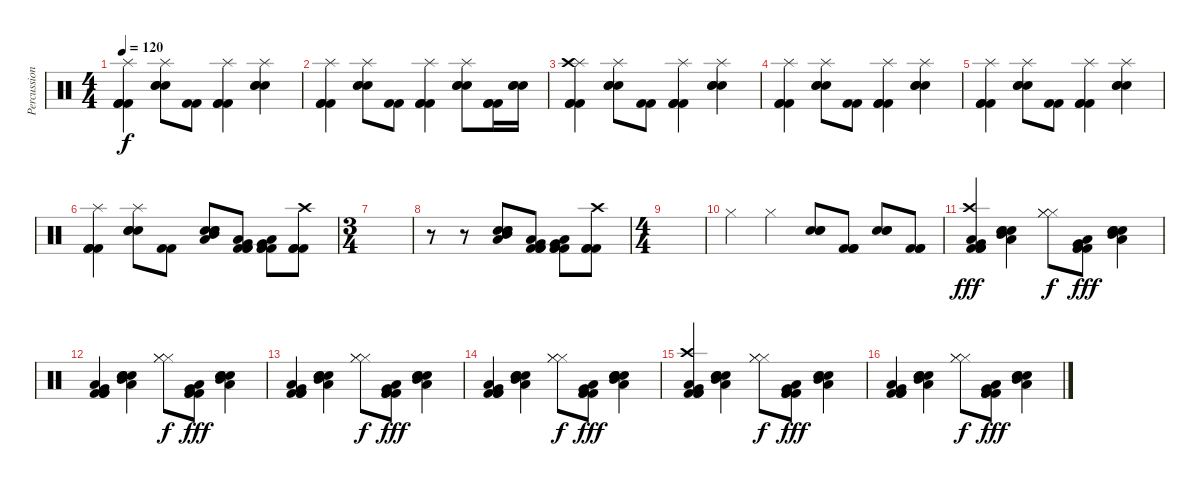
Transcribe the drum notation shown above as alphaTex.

\track ("Percussion" "Percussion") {instrument percussion}
\staff {score}
\articulation defaults
\ts (4 4)
\tempo 120
\clef neutral
\ks c
("Kick (hit) 2" "Kick (hit) 2" "Kick (hit) 2" "Splash (hit)").4{dy f} ("Electric Snare (hit)" "Electric Snare (hit)" "Electric Snare (hit)" "Splash (hit)").8 ("Kick (hit) 2" "Kick (hit) 2").8 ("Kick (hit) 2" "Kick (hit) 2" "Kick (hit) 2" "Splash (hit)").4 ("Electric Snare (hit)" "Electric Snare (hit)" "Electric Snare (hit)" "Splash (hit)").4 |
("Kick (hit) 2" "Kick (hit) 2" "Kick (hit) 2" "Splash (hit)").4 ("Electric Snare (hit)" "Electric Snare (hit)" "Electric Snare (hit)" "Splash (hit)").8 ("Kick (hit) 2" "Kick (hit) 2").8 ("Kick (hit) 2" "Kick (hit) 2" "Kick (hit) 2" "Splash (hit)").4 ("Electric Snare (hit)" "Electric Snare (hit)" "Electric Snare (hit)" "Splash (hit)").8 ("Kick (hit) 2" "Kick (hit) 2" "Kick (hit) 2").16 ("Electric Snare (hit)" "Electric Snare (hit)" "Electric Snare (hit)").16 |
("Kick (hit) 2" "Kick (hit) 2" "Kick (hit) 2" "Splash (hit)" "Crash high (hit)").4 ("Electric Snare (hit)" "Electric Snare (hit)" "Electric Snare (hit)" "Splash (hit)").8 ("Kick (hit) 2" "Kick (hit) 2").8 ("Kick (hit) 2" "Kick (hit) 2" "Kick (hit) 2" "Splash (hit)").4 ("Electric Snare (hit)" "Electric Snare (hit)" "Electric Snare (hit)" "Splash (hit)").4 |
("Kick (hit) 2" "Kick (hit) 2" "Kick (hit) 2" "Splash (hit)").4 ("Electric Snare (hit)" "Electric Snare (hit)" "Electric Snare (hit)" "Splash (hit)").8 ("Kick (hit) 2" "Kick (hit) 2").8 ("Kick (hit) 2" "Kick (hit) 2" "Kick (hit) 2" "Splash (hit)").4 ("Electric Snare (hit)" "Electric Snare (hit)" "Electric Snare (hit)" "Splash (hit)").4 |
("Kick (hit) 2" "Kick (hit) 2" "Kick (hit) 2" "Splash (hit)").4 ("Electric Snare (hit)" "Electric Snare (hit)" "Electric Snare (hit)" "Splash (hit)").8 ("Kick (hit) 2" "Kick (hit) 2").8 ("Kick (hit) 2" "Kick (hit) 2" "Kick (hit) 2" "Splash (hit)").4 ("Electric Snare (hit)" "Electric Snare (hit)" "Electric Snare (hit)" "Splash (hit)").4 |
("Kick (hit) 2" "Kick (hit) 2" "Kick (hit) 2" "Splash (hit)").4 ("Electric Snare (hit)" "Electric Snare (hit)" "Electric Snare (hit)" "Splash (hit)").8 ("Kick (hit) 2" "Kick (hit) 2").8 ("Electric Snare (hit)" "Electric Snare (hit)" "Electric Snare (hit)" "Mid Tom (hit)" "Low Tom (hit)").8 ("Kick (hit) 2" "Kick (hit) 2" "Kick (hit) 2" "Low Tom (hit)" "Very Low Tom (hit)").8 ("Kick (hit) 2" "Kick (hit) 2" "Kick (hit) 2" "Very Low Tom (hit)" "Low Floor Tom (hit)").8 ("Kick (hit) 2" "Kick (hit) 2" "Kick (hit) 2" "Crash high (hit)").8 |
\ts (3 4)
|
r.8 r.8 ("Electric Snare (hit)" "Electric Snare (hit)" "Electric Snare (hit)" "Mid Tom (hit)" "Low Tom (hit)").8 ("Kick (hit) 2" "Kick (hit) 2" "Kick (hit) 2" "Low Tom (hit)" "Very Low Tom (hit)").8 ("Kick (hit) 2" "Kick (hit) 2" "Kick (hit) 2" "Very Low Tom (hit)" "Low Floor Tom (hit)").8 ("Kick (hit) 2" "Kick (hit) 2" "Kick (hit) 2" "Crash high (hit)").8 |
\ts (4 4)
|
"Hi-Hat (closed)".4 "Hi-Hat (closed)".4 ("Electric Snare (hit)" "Electric Snare (hit)" "Electric Snare (hit)").8 ("Kick (hit) 2" "Kick (hit) 2" "Kick (hit) 2").8 ("Electric Snare (hit)" "Electric Snare (hit)" "Electric Snare (hit)").8 ("Kick (hit) 2" "Kick (hit) 2" "Kick (hit) 2").8 |
("Kick (hit) 2" "Kick (hit) 2" "Kick (hit) 2" "Crash high (hit)" "Low Floor Tom (hit)" "Very Low Tom (hit)").4{dy fff} ("Snare (hit) 2" "Snare (hit) 2" "Snare (hit) 2" "Mid Tom (hit)" "Low Tom (hit)").4 ("Hi-Hat (closed)" "Hi-Hat (closed)" "Hi-Hat (closed)").8{dy f} ("Kick (hit) 2" "Kick (hit) 2" "Kick (hit) 2" "Low Floor Tom (hit)" "Very Low Tom (hit)").8{dy fff} ("Snare (hit) 2" "Snare (hit) 2" "Snare (hit) 2" "Mid Tom (hit)" "Low Tom (hit)").4 |
("Kick (hit) 2" "Kick (hit) 2" "Kick (hit) 2" "Low Floor Tom (hit)" "Very Low Tom (hit)").4 ("Snare (hit) 2" "Snare (hit) 2" "Snare (hit) 2" "Mid Tom (hit)" "Low Tom (hit)").4 ("Hi-Hat (closed)" "Hi-Hat (closed)" "Hi-Hat (closed)").8{dy f} ("Kick (hit) 2" "Kick (hit) 2" "Kick (hit) 2" "Low Floor Tom (hit)" "Very Low Tom (hit)").8{dy fff} ("Snare (hit) 2" "Snare (hit) 2" "Snare (hit) 2" "Mid Tom (hit)" "Low Tom (hit)").4 |
("Kick (hit) 2" "Kick (hit) 2" "Kick (hit) 2" "Low Floor Tom (hit)" "Very Low Tom (hit)").4 ("Snare (hit) 2" "Snare (hit) 2" "Snare (hit) 2" "Mid Tom (hit)" "Low Tom (hit)").4 ("Hi-Hat (closed)" "Hi-Hat (closed)" "Hi-Hat (closed)").8{dy f} ("Kick (hit) 2" "Kick (hit) 2" "Kick (hit) 2" "Low Floor Tom (hit)" "Very Low Tom (hit)").8{dy fff} ("Snare (hit) 2" "Snare (hit) 2" "Snare (hit) 2" "Mid Tom (hit)" "Low Tom (hit)").4 |
("Kick (hit) 2" "Kick (hit) 2" "Kick (hit) 2" "Low Floor Tom (hit)" "Very Low Tom (hit)").4 ("Snare (hit) 2" "Snare (hit) 2" "Snare (hit) 2" "Mid Tom (hit)" "Low Tom (hit)").4 ("Hi-Hat (closed)" "Hi-Hat (closed)" "Hi-Hat (closed)").8{dy f} ("Kick (hit) 2" "Kick (hit) 2" "Kick (hit) 2" "Low Floor Tom (hit)" "Very Low Tom (hit)").8{dy fff} ("Snare (hit) 2" "Snare (hit) 2" "Snare (hit) 2" "Mid Tom (hit)" "Low Tom (hit)").4 |
("Kick (hit) 2" "Kick (hit) 2" "Kick (hit) 2" "Crash high (hit)" "Low Floor Tom (hit)" "Very Low Tom (hit)").4 ("Snare (hit) 2" "Snare (hit) 2" "Snare (hit) 2" "Mid Tom (hit)" "Low Tom (hit)").4 ("Hi-Hat (closed)" "Hi-Hat (closed)" "Hi-Hat (closed)").8{dy f} ("Kick (hit) 2" "Kick (hit) 2" "Kick (hit) 2" "Low Floor Tom (hit)" "Very Low Tom (hit)").8{dy fff} ("Snare (hit) 2" "Snare (hit) 2" "Snare (hit) 2" "Mid Tom (hit)" "Low Tom (hit)").4 |
("Kick (hit) 2" "Kick (hit) 2" "Kick (hit) 2" "Low Floor Tom (hit)" "Very Low Tom (hit)").4 ("Snare (hit) 2" "Snare (hit) 2" "Snare (hit) 2" "Mid Tom (hit)" "Low Tom (hit)").4 ("Hi-Hat (closed)" "Hi-Hat (closed)" "Hi-Hat (closed)").8{dy f} ("Kick (hit) 2" "Kick (hit) 2" "Kick (hit) 2" "Low Floor Tom (hit)" "Very Low Tom (hit)").8{dy fff} ("Snare (hit) 2" "Snare (hit) 2" "Snare (hit) 2" "Mid Tom (hit)" "Low Tom (hit)").4
